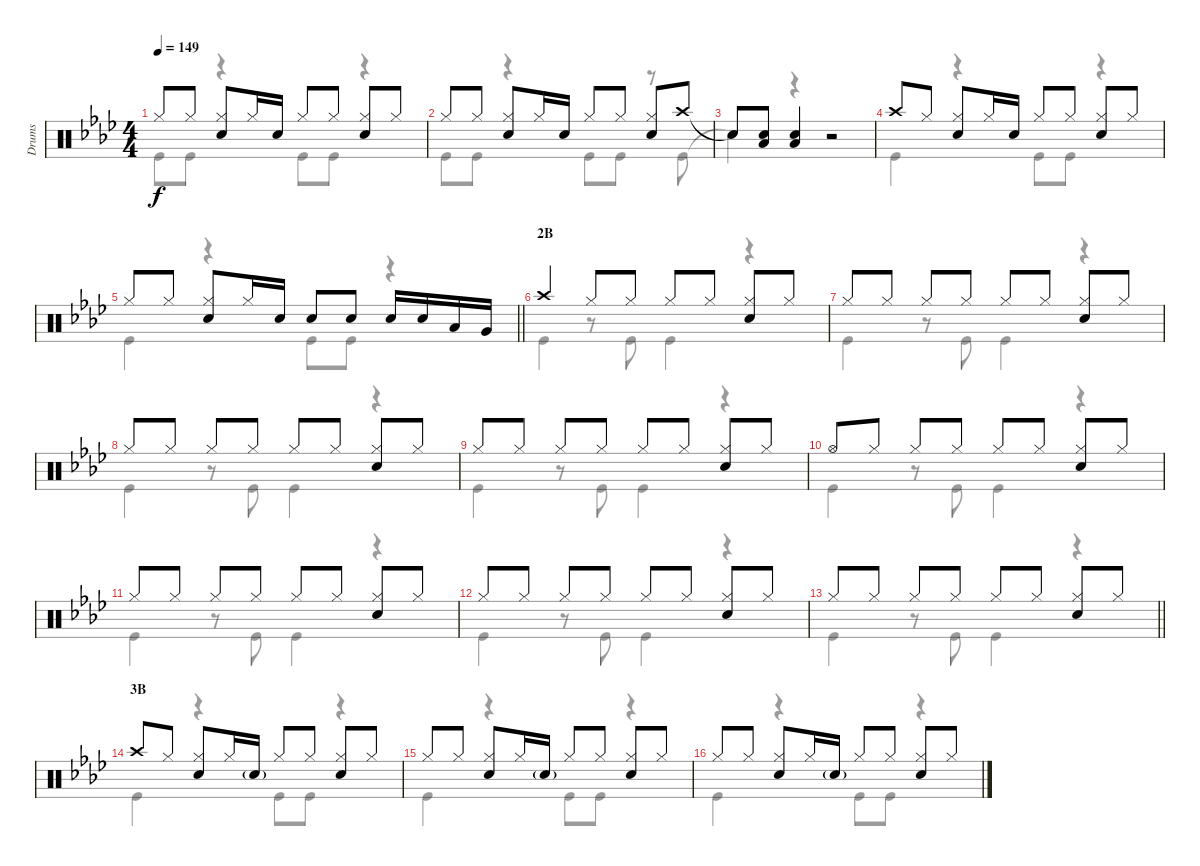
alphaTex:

\track ("Drums" "Drums") {instrument percussion}
\staff {score}
\articulation defaults
\voice
\ts (4 4)
\tempo 149
\clef neutral
\ks ab "Hi-Hat (closed)".8{dy f} "Hi-Hat (closed)".8
("Hi-Hat (closed)" "Snare (hit) 2").8 "Hi-Hat (closed)".16 "Snare (hit) 2".16 "Hi-Hat (closed)".8 "Hi-Hat (closed)".8 ("Hi-Hat (closed)" "Snare (hit) 2").8 "Hi-Hat (closed)".8 |
"Hi-Hat (closed)".8 "Hi-Hat (closed)".8 ("Hi-Hat (closed)" "Snare (hit) 2").8 "Hi-Hat (closed)".16 "Snare (hit) 2".16 "Hi-Hat (closed)".8 "Hi-Hat (closed)".8 ("Hi-Hat (closed)" "Snare (hit) 2").8 "Crash high (hit)".8 |
"Snare (hit)"{t}.8 ("Snare (hit) 2" "Low Tom (hit)").8 ("Snare (hit) 2" "Low Tom (hit)").4 r.2 |
"Crash high (hit)".8 "Hi-Hat (closed)".8 ("Hi-Hat (closed)" "Snare (hit) 2").8 "Hi-Hat (closed)".16 "Snare (hit) 2".16 "Hi-Hat (closed)".8 "Hi-Hat (closed)".8 ("Hi-Hat (closed)" "Snare (hit) 2").8 "Hi-Hat (closed)".8 |
\barLineRight lightlight "Hi-Hat (closed)".8 "Hi-Hat (closed)".8
("Hi-Hat (closed)" "Snare (hit) 2").8 "Hi-Hat (closed)".16 "Snare (hit) 2".16 "Snare (hit) 2".8 "Snare (hit) 2".8 "Snare (hit) 2".16 "Snare (hit) 2".16 "Low Tom (hit)".16 "Very Low Tom (hit)".16 |
\section ("" "2B")
"Crash high (hit)".4 "Hi-Hat (closed)".8 "Hi-Hat (closed)".8 "Hi-Hat (closed)".8 "Hi-Hat (closed)".8 ("Hi-Hat (closed)" "Snare (hit) 2").8 "Hi-Hat (closed)".8 |
"Hi-Hat (closed)".8 "Hi-Hat (closed)".8 "Hi-Hat (closed)".8 "Hi-Hat (closed)".8 "Hi-Hat (closed)".8 "Hi-Hat (closed)".8 ("Hi-Hat (closed)" "Snare (hit) 2").8 "Hi-Hat (closed)".8 |
"Hi-Hat (closed)".8 "Hi-Hat (closed)".8 "Hi-Hat (closed)".8 "Hi-Hat (closed)".8 "Hi-Hat (closed)".8 "Hi-Hat (closed)".8 ("Hi-Hat (closed)" "Snare (hit) 2").8 "Hi-Hat (closed)".8 |
"Hi-Hat (closed)".8 "Hi-Hat (closed)".8 "Hi-Hat (closed)".8 "Hi-Hat (closed)".8 "Hi-Hat (closed)".8 "Hi-Hat (closed)".8 ("Hi-Hat (closed)" "Snare (hit) 2").8 "Hi-Hat (closed)".8 |
"Hi-Hat (open)".8 "Hi-Hat (closed)".8 "Hi-Hat (closed)".8 "Hi-Hat (closed)".8 "Hi-Hat (closed)".8 "Hi-Hat (closed)".8 ("Hi-Hat (closed)" "Snare (hit) 2").8 "Hi-Hat (closed)".8 |
"Hi-Hat (closed)".8 "Hi-Hat (closed)".8 "Hi-Hat (closed)".8 "Hi-Hat (closed)".8 "Hi-Hat (closed)".8 "Hi-Hat (closed)".8 ("Hi-Hat (closed)" "Snare (hit) 2").8 "Hi-Hat (closed)".8 |
"Hi-Hat (closed)".8 "Hi-Hat (closed)".8 "Hi-Hat (closed)".8 "Hi-Hat (closed)".8 "Hi-Hat (closed)".8 "Hi-Hat (closed)".8 ("Hi-Hat (closed)" "Snare (hit) 2").8 "Hi-Hat (closed)".8 |
\barLineRight lightlight "Hi-Hat (closed)".8 "Hi-Hat (closed)".8 "Hi-Hat (closed)".8 "Hi-Hat (closed)".8 "Hi-Hat (closed)".8 "Hi-Hat (closed)".8
("Hi-Hat (closed)" "Snare (hit) 2").8 "Hi-Hat (closed)".8 |
\section ("" "3B")
"Crash high (hit)".8 "Hi-Hat (closed)".8 ("Hi-Hat (closed)" "Snare (hit) 2").8 "Hi-Hat (closed)".16 "Snare (hit) 2"{g}.16 "Hi-Hat (closed)".8 "Hi-Hat (closed)".8 ("Hi-Hat (closed)" "Snare (hit) 2").8 "Hi-Hat (closed)".8 |
"Hi-Hat (closed)".8 "Hi-Hat (closed)".8 ("Hi-Hat (closed)" "Snare (hit) 2").8 "Hi-Hat (closed)".16 "Snare (hit) 2"{g}.16 "Hi-Hat (closed)".8 "Hi-Hat (closed)".8 ("Hi-Hat (closed)" "Snare (hit) 2").8 "Hi-Hat (closed)".8 |
"Hi-Hat (closed)".8 "Hi-Hat (closed)".8 ("Hi-Hat (closed)" "Snare (hit) 2").8 "Hi-Hat (closed)".16 "Snare (hit) 2"{g}.16 "Hi-Hat (closed)".8 "Hi-Hat (closed)".8 ("Hi-Hat (closed)" "Snare (hit) 2").8 "Hi-Hat (closed)".8
\voice
\clef neutral
\ottava regular
\simile none
\ks ab "Kick (hit)".8{dy f} "Kick (hit)".8
r.4 "Kick (hit)".8 "Kick (hit)".8 r.4 |
"Kick (hit)".8 "Kick (hit)".8 r.4 "Kick (hit)".8 "Kick (hit)".8 r.8 "Kick (hit)".8 |
"Snare (hit)"{t}.4 r.4 r.2 |
"Kick (hit)".4 r.4 "Kick (hit)".8 "Kick (hit)".8 r.4 |
\barLineRight lightlight "Kick (hit)".4
r.4 "Kick (hit)".8 "Kick (hit)".8 r.4 |
"Kick (hit)".4 r.8 "Kick (hit)".8 "Kick (hit)".4 r.4 |
"Kick (hit)".4 r.8 "Kick (hit)".8 "Kick (hit)".4 r.4 |
"Kick (hit)".4 r.8 "Kick (hit)".8 "Kick (hit)".4 r.4 |
"Kick (hit)".4 r.8 "Kick (hit)".8 "Kick (hit)".4 r.4 |
"Kick (hit)".4 r.8 "Kick (hit)".8 "Kick (hit)".4 r.4 |
"Kick (hit)".4 r.8 "Kick (hit)".8 "Kick (hit)".4 r.4 |
"Kick (hit)".4 r.8 "Kick (hit)".8 "Kick (hit)".4 r.4 |
\barLineRight lightlight "Kick (hit)".4
r.8 "Kick (hit)".8 "Kick (hit)".4 r.4 |
"Kick (hit)".4 r.4 "Kick (hit)".8 "Kick (hit)".8 r.4 |
"Kick (hit)".4 r.4 "Kick (hit)".8 "Kick (hit)".8 r.4 |
"Kick (hit)".4 r.4 "Kick (hit)".8 "Kick (hit)".8 r.4
